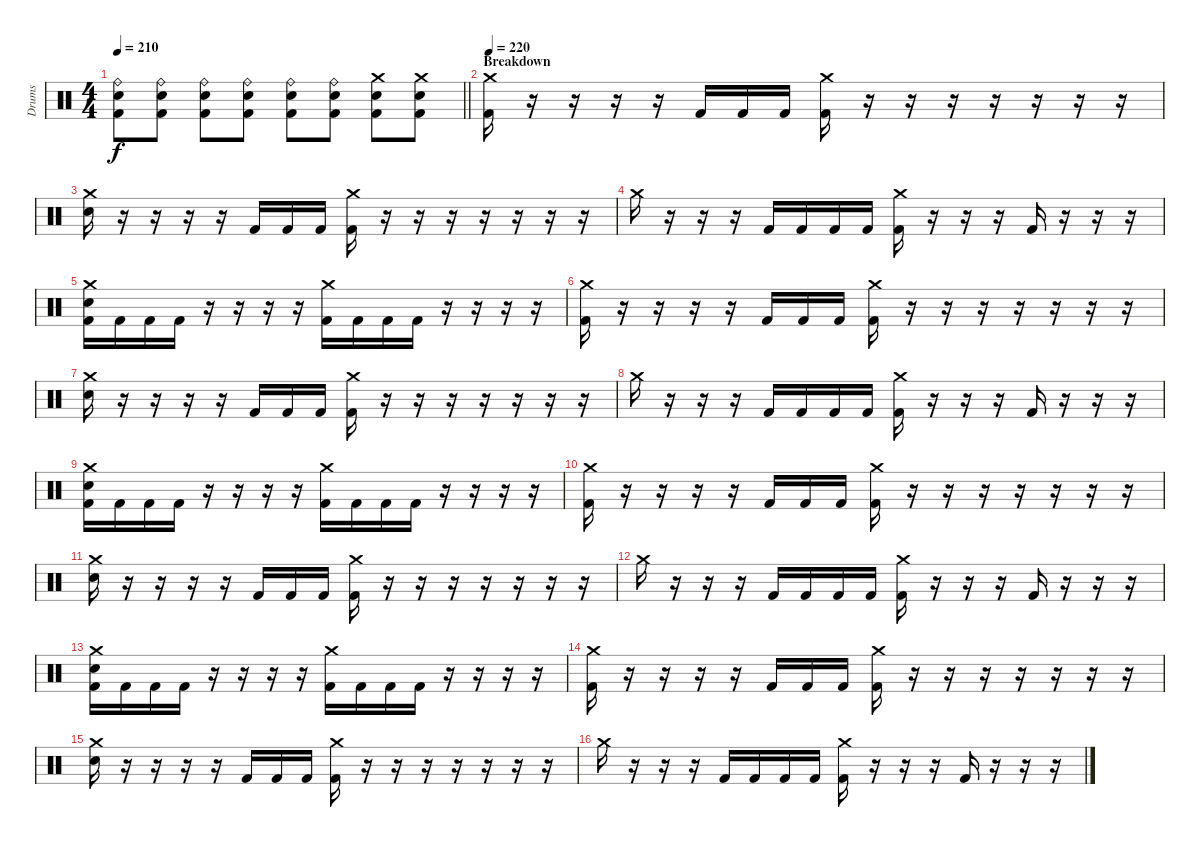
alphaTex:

\track ("Drums" "Drums") {instrument percussion}
\staff {score}
\articulation defaults
\ts (4 4)
\tempo 210
\clef neutral
\barLineRight lightlight
\ks c
("Ride (bell)" "Electric Snare (hit)" "Kick (hit) 2").8{dy f} ("Ride (bell)" "Electric Snare (hit)" "Kick (hit) 2").8 ("Ride (bell)" "Electric Snare (hit)" "Kick (hit) 2").8 ("Ride (bell)" "Electric Snare (hit)" "Kick (hit) 2").8 ("Ride (bell)" "Electric Snare (hit)" "Kick (hit) 2").8 ("Ride (bell)" "Electric Snare (hit)" "Kick (hit) 2").8 ("Crash medium (hit)" "Electric Snare (hit)" "Kick (hit) 2").8 ("Crash medium (hit)" "Electric Snare (hit)" "Kick (hit) 2").8 |
\section ("" "Breakdown")
\tempo 220
("Crash medium (hit)" "Kick (hit) 2").16 r.16 r.16 r.16 r.16 "Kick (hit) 2".16 "Kick (hit) 2".16 "Kick (hit) 2".16 ("Crash medium (hit)" "Kick (hit) 2").16 r.16 r.16 r.16 r.16 r.16 r.16 r.16 |
("Crash medium (hit)" "Electric Snare (hit)").16 r.16 r.16 r.16 r.16 "Kick (hit) 2".16 "Kick (hit) 2".16 "Kick (hit) 2".16 ("Crash medium (hit)" "Kick (hit) 2").16 r.16 r.16 r.16 r.16 r.16 r.16 r.16 |
"Crash medium (hit)".16 r.16 r.16 r.16 "Kick (hit) 2".16 "Kick (hit) 2".16 "Kick (hit) 2".16 "Kick (hit) 2".16 ("Crash medium (hit)" "Kick (hit) 2").16 r.16 r.16 r.16 "Kick (hit) 2".16 r.16 r.16 r.16 |
("Crash medium (hit)" "Electric Snare (hit)" "Kick (hit) 2").16 "Kick (hit) 2".16 "Kick (hit) 2".16 "Kick (hit) 2".16 r.16 r.16 r.16 r.16 ("Crash medium (hit)" "Kick (hit) 2").16 "Kick (hit) 2".16 "Kick (hit) 2".16 "Kick (hit) 2".16 r.16 r.16 r.16 r.16 |
("Crash medium (hit)" "Kick (hit) 2").16 r.16 r.16 r.16 r.16 "Kick (hit) 2".16 "Kick (hit) 2".16 "Kick (hit) 2".16 ("Crash medium (hit)" "Kick (hit) 2").16 r.16 r.16 r.16 r.16 r.16 r.16 r.16 |
("Crash medium (hit)" "Electric Snare (hit)").16 r.16 r.16 r.16 r.16 "Kick (hit) 2".16 "Kick (hit) 2".16 "Kick (hit) 2".16 ("Crash medium (hit)" "Kick (hit) 2").16 r.16 r.16 r.16 r.16 r.16 r.16 r.16 |
"Crash medium (hit)".16 r.16 r.16 r.16 "Kick (hit) 2".16 "Kick (hit) 2".16 "Kick (hit) 2".16 "Kick (hit) 2".16 ("Crash medium (hit)" "Kick (hit) 2").16 r.16 r.16 r.16 "Kick (hit) 2".16 r.16 r.16 r.16 |
("Crash medium (hit)" "Electric Snare (hit)" "Kick (hit) 2").16 "Kick (hit) 2".16 "Kick (hit) 2".16 "Kick (hit) 2".16 r.16 r.16 r.16 r.16 ("Crash medium (hit)" "Kick (hit) 2").16 "Kick (hit) 2".16 "Kick (hit) 2".16 "Kick (hit) 2".16 r.16 r.16 r.16 r.16 |
("Crash medium (hit)" "Kick (hit) 2").16 r.16 r.16 r.16 r.16 "Kick (hit) 2".16 "Kick (hit) 2".16 "Kick (hit) 2".16 ("Crash medium (hit)" "Kick (hit) 2").16 r.16 r.16 r.16 r.16 r.16 r.16 r.16 |
("Crash medium (hit)" "Electric Snare (hit)").16 r.16 r.16 r.16 r.16 "Kick (hit) 2".16 "Kick (hit) 2".16 "Kick (hit) 2".16 ("Crash medium (hit)" "Kick (hit) 2").16 r.16 r.16 r.16 r.16 r.16 r.16 r.16 |
"Crash medium (hit)".16 r.16 r.16 r.16 "Kick (hit) 2".16 "Kick (hit) 2".16 "Kick (hit) 2".16 "Kick (hit) 2".16 ("Crash medium (hit)" "Kick (hit) 2").16 r.16 r.16 r.16 "Kick (hit) 2".16 r.16 r.16 r.16 |
("Crash medium (hit)" "Electric Snare (hit)" "Kick (hit) 2").16 "Kick (hit) 2".16 "Kick (hit) 2".16 "Kick (hit) 2".16 r.16 r.16 r.16 r.16 ("Crash medium (hit)" "Kick (hit) 2").16 "Kick (hit) 2".16 "Kick (hit) 2".16 "Kick (hit) 2".16 r.16 r.16 r.16 r.16 |
("Crash medium (hit)" "Kick (hit) 2").16 r.16 r.16 r.16 r.16 "Kick (hit) 2".16 "Kick (hit) 2".16 "Kick (hit) 2".16 ("Crash medium (hit)" "Kick (hit) 2").16 r.16 r.16 r.16 r.16 r.16 r.16 r.16 |
("Crash medium (hit)" "Electric Snare (hit)").16 r.16 r.16 r.16 r.16 "Kick (hit) 2".16 "Kick (hit) 2".16 "Kick (hit) 2".16 ("Crash medium (hit)" "Kick (hit) 2").16 r.16 r.16 r.16 r.16 r.16 r.16 r.16 |
"Crash medium (hit)".16 r.16 r.16 r.16 "Kick (hit) 2".16 "Kick (hit) 2".16 "Kick (hit) 2".16 "Kick (hit) 2".16 ("Crash medium (hit)" "Kick (hit) 2").16 r.16 r.16 r.16 "Kick (hit) 2".16 r.16 r.16 r.16
